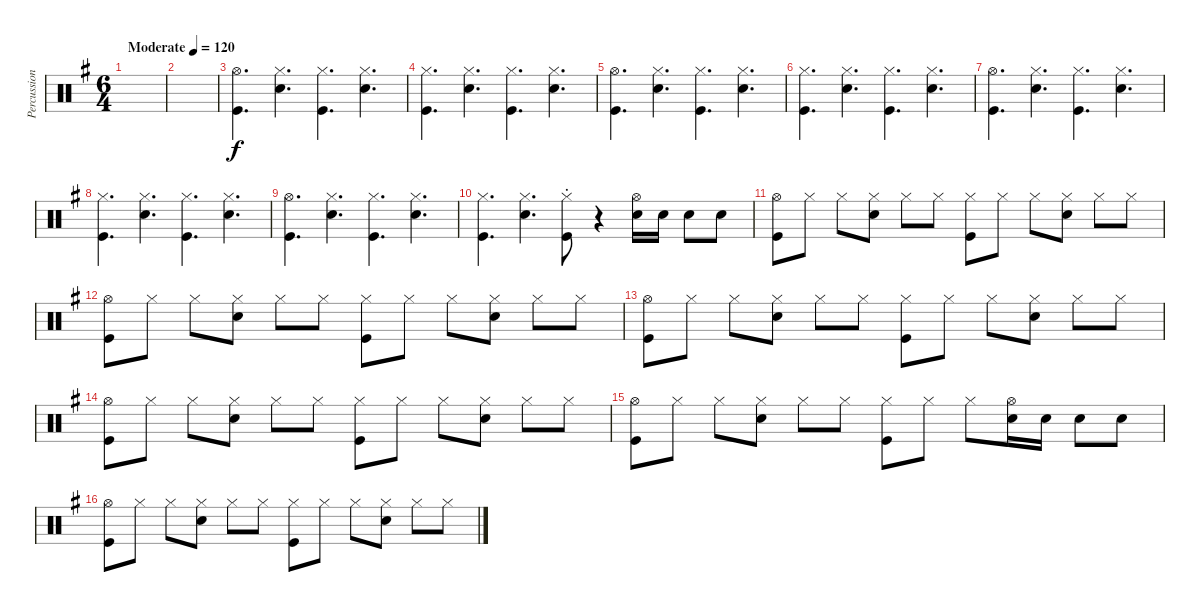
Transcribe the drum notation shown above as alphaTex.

\track ("Percussion" "Percussion") {instrument percussion}
\staff {score}
\articulation defaults
\ts (6 4)
\tempo (120 "Moderate")
\clef neutral
\ks g
|
|
("Kick (hit)" "Hi-Hat (open)").4{d} ("Hi-Hat (closed)" "Snare (hit) 2").4{d} ("Hi-Hat (closed)" "Kick (hit)").4{d} ("Hi-Hat (closed)" "Snare (hit) 2").4{d} |
("Kick (hit)" "Hi-Hat (closed)").4{d} ("Hi-Hat (closed)" "Snare (hit) 2").4{d} ("Hi-Hat (closed)" "Kick (hit)").4{d} ("Hi-Hat (closed)" "Snare (hit) 2").4{d} |
("Kick (hit)" "Hi-Hat (open)").4{d} ("Hi-Hat (closed)" "Snare (hit) 2").4{d} ("Hi-Hat (closed)" "Kick (hit)").4{d} ("Hi-Hat (closed)" "Snare (hit) 2").4{d} |
("Kick (hit)" "Hi-Hat (closed)").4{d} ("Hi-Hat (closed)" "Snare (hit) 2").4{d} ("Hi-Hat (closed)" "Kick (hit)").4{d} ("Hi-Hat (closed)" "Snare (hit) 2").4{d} |
("Kick (hit)" "Hi-Hat (open)").4{d} ("Hi-Hat (closed)" "Snare (hit) 2").4{d} ("Hi-Hat (closed)" "Kick (hit)").4{d} ("Hi-Hat (closed)" "Snare (hit) 2").4{d} |
("Kick (hit)" "Hi-Hat (closed)").4{d} ("Hi-Hat (closed)" "Snare (hit) 2").4{d} ("Hi-Hat (closed)" "Kick (hit)").4{d} ("Hi-Hat (closed)" "Snare (hit) 2").4{d} |
("Kick (hit)" "Hi-Hat (open)").4{d} ("Hi-Hat (closed)" "Snare (hit) 2").4{d} ("Hi-Hat (closed)" "Kick (hit)").4{d} ("Hi-Hat (closed)" "Snare (hit) 2").4{d} |
("Hi-Hat (closed)" "Kick (hit)").4{d} ("Snare (hit) 2" "Hi-Hat (closed)").4{d} ("Kick (hit)"{st} "Hi-Hat (closed)"{st}).8 r.4 ("Snare (hit) 2" "Hi-Hat (open)").16 "Snare (hit) 2".16 "Snare (hit) 2".8 "Snare (hit) 2".8 |
("Kick (hit)" "Hi-Hat (open)").8 "Hi-Hat (closed)".8 "Hi-Hat (closed)".8 ("Hi-Hat (closed)" "Snare (hit) 2").8 "Hi-Hat (closed)".8 "Hi-Hat (closed)".8 ("Hi-Hat (closed)" "Kick (hit)").8 "Hi-Hat (closed)".8 "Hi-Hat (closed)".8 ("Hi-Hat (closed)" "Snare (hit) 2").8 "Hi-Hat (closed)".8 "Hi-Hat (closed)".8 |
("Kick (hit)" "Hi-Hat (open)").8 "Hi-Hat (closed)".8 "Hi-Hat (closed)".8 ("Hi-Hat (closed)" "Snare (hit) 2").8 "Hi-Hat (closed)".8 "Hi-Hat (closed)".8 ("Hi-Hat (closed)" "Kick (hit)").8 "Hi-Hat (closed)".8 "Hi-Hat (closed)".8 ("Hi-Hat (closed)" "Snare (hit) 2").8 "Hi-Hat (closed)".8 "Hi-Hat (closed)".8 |
("Kick (hit)" "Hi-Hat (open)").8 "Hi-Hat (closed)".8 "Hi-Hat (closed)".8 ("Hi-Hat (closed)" "Snare (hit) 2").8 "Hi-Hat (closed)".8 "Hi-Hat (closed)".8 ("Hi-Hat (closed)" "Kick (hit)").8 "Hi-Hat (closed)".8 "Hi-Hat (closed)".8 ("Hi-Hat (closed)" "Snare (hit) 2").8 "Hi-Hat (closed)".8 "Hi-Hat (closed)".8 |
("Kick (hit)" "Hi-Hat (open)").8 "Hi-Hat (closed)".8 "Hi-Hat (closed)".8 ("Hi-Hat (closed)" "Snare (hit) 2").8 "Hi-Hat (closed)".8 "Hi-Hat (closed)".8 ("Hi-Hat (closed)" "Kick (hit)").8 "Hi-Hat (closed)".8 "Hi-Hat (closed)".8 ("Hi-Hat (closed)" "Snare (hit) 2").8 "Hi-Hat (closed)".8 "Hi-Hat (closed)".8 |
("Kick (hit)" "Hi-Hat (open)").8 "Hi-Hat (closed)".8 "Hi-Hat (closed)".8 ("Hi-Hat (closed)" "Snare (hit) 2").8 "Hi-Hat (closed)".8 "Hi-Hat (closed)".8 ("Hi-Hat (closed)" "Kick (hit)").8 "Hi-Hat (closed)".8 "Hi-Hat (closed)".8 ("Snare (hit) 2" "Hi-Hat (open)").16 "Snare (hit) 2".16 "Snare (hit) 2".8 "Snare (hit) 2".8 |
("Kick (hit)" "Hi-Hat (open)").8 "Hi-Hat (closed)".8 "Hi-Hat (closed)".8 ("Hi-Hat (closed)" "Snare (hit) 2").8 "Hi-Hat (closed)".8 "Hi-Hat (closed)".8 ("Hi-Hat (closed)" "Kick (hit)").8 "Hi-Hat (closed)".8 "Hi-Hat (closed)".8 ("Hi-Hat (closed)" "Snare (hit) 2").8 "Hi-Hat (closed)".8 "Hi-Hat (closed)".8
